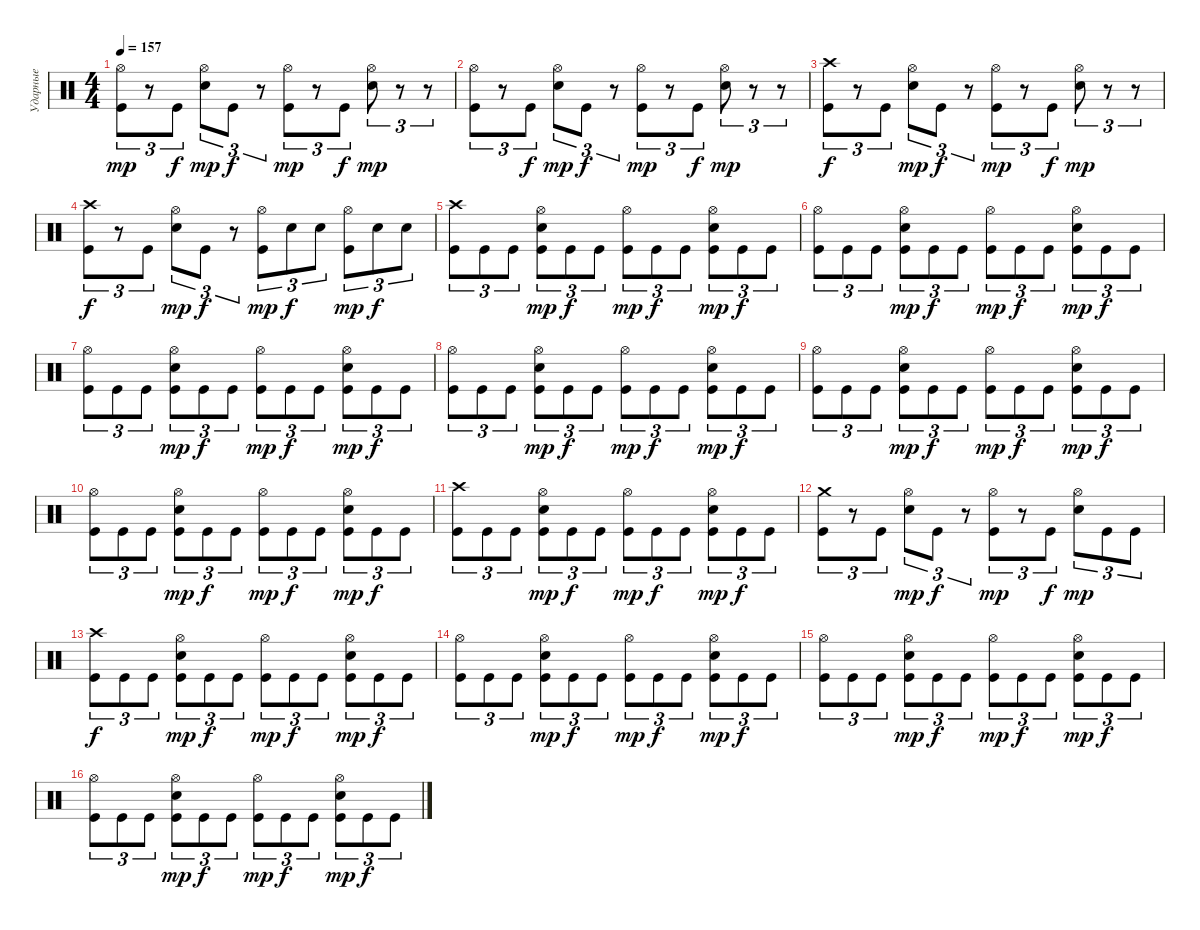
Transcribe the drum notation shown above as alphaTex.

\track ("Ударные" "Ударные") {instrument percussion}
\staff {score}
\articulation defaults
\ts (4 4)
\tempo 157
\clef neutral
\ks c
("Hi-Hat (open)" "Kick (hit)").8{tu (3 2) dy mp} r.8{tu (3 2)} "Kick (hit)".8{tu (3 2) dy f} ("Hi-Hat (open)" "Snare (hit) 2").8{tu (3 2) dy mp} "Kick (hit)".8{tu (3 2) dy f} r.8{tu (3 2)} ("Hi-Hat (open)" "Kick (hit)").8{tu (3 2) dy mp} r.8{tu (3 2)} "Kick (hit)".8{tu (3 2) dy f} ("Hi-Hat (open)" "Snare (hit) 2").8{tu (3 2) dy mp} r.8{tu (3 2)} r.8{tu (3 2)} |
("Hi-Hat (open)" "Kick (hit)").8{tu (3 2)} r.8{tu (3 2)} "Kick (hit)".8{tu (3 2) dy f} ("Hi-Hat (open)" "Snare (hit) 2").8{tu (3 2) dy mp} "Kick (hit)".8{tu (3 2) dy f} r.8{tu (3 2)} ("Hi-Hat (open)" "Kick (hit)").8{tu (3 2) dy mp} r.8{tu (3 2)} "Kick (hit)".8{tu (3 2) dy f} ("Hi-Hat (open)" "Snare (hit) 2").8{tu (3 2) dy mp} r.8{tu (3 2)} r.8{tu (3 2)} |
("Crash high (hit)" "Kick (hit)").8{tu (3 2) dy f} r.8{tu (3 2)} "Kick (hit)".8{tu (3 2)} ("Hi-Hat (open)" "Snare (hit) 2").8{tu (3 2) dy mp} "Kick (hit)".8{tu (3 2) dy f} r.8{tu (3 2)} ("Hi-Hat (open)" "Kick (hit)").8{tu (3 2) dy mp} r.8{tu (3 2)} "Kick (hit)".8{tu (3 2) dy f} ("Hi-Hat (open)" "Snare (hit) 2").8{tu (3 2) dy mp} r.8{tu (3 2)} r.8{tu (3 2)} |
("Crash high (hit)" "Kick (hit)").8{tu (3 2) dy f} r.8{tu (3 2)} "Kick (hit)".8{tu (3 2)} ("Hi-Hat (open)" "Snare (hit) 2").8{tu (3 2) dy mp} "Kick (hit)".8{tu (3 2) dy f} r.8{tu (3 2)} ("Hi-Hat (open)" "Kick (hit)").8{tu (3 2) dy mp} "Snare (hit) 2".8{tu (3 2) dy f} "Snare (hit) 2".8{tu (3 2)} ("Hi-Hat (open)" "Kick (hit)").8{tu (3 2) dy mp} "Snare (hit) 2".8{tu (3 2) dy f} "Snare (hit) 2".8{tu (3 2)} |
("Crash high (hit)" "Kick (hit)").8{tu (3 2)} "Kick (hit)".8{tu (3 2)} "Kick (hit)".8{tu (3 2)} ("Hi-Hat (open)" "Snare (hit) 2" "Kick (hit)").8{tu (3 2) dy mp} "Kick (hit)".8{tu (3 2) dy f} "Kick (hit)".8{tu (3 2)} ("Hi-Hat (open)" "Kick (hit)").8{tu (3 2) dy mp} "Kick (hit)".8{tu (3 2) dy f} "Kick (hit)".8{tu (3 2)} ("Hi-Hat (open)" "Snare (hit) 2" "Kick (hit)").8{tu (3 2) dy mp} "Kick (hit)".8{tu (3 2) dy f} "Kick (hit)".8{tu (3 2)} |
("Hi-Hat (open)" "Kick (hit)").8{tu (3 2)} "Kick (hit)".8{tu (3 2)} "Kick (hit)".8{tu (3 2)} ("Hi-Hat (open)" "Snare (hit) 2" "Kick (hit)").8{tu (3 2) dy mp} "Kick (hit)".8{tu (3 2) dy f} "Kick (hit)".8{tu (3 2)} ("Hi-Hat (open)" "Kick (hit)").8{tu (3 2) dy mp} "Kick (hit)".8{tu (3 2) dy f} "Kick (hit)".8{tu (3 2)} ("Hi-Hat (open)" "Snare (hit) 2" "Kick (hit)").8{tu (3 2) dy mp} "Kick (hit)".8{tu (3 2) dy f} "Kick (hit)".8{tu (3 2)} |
("Hi-Hat (open)" "Kick (hit)").8{tu (3 2)} "Kick (hit)".8{tu (3 2)} "Kick (hit)".8{tu (3 2)} ("Hi-Hat (open)" "Snare (hit) 2" "Kick (hit)").8{tu (3 2) dy mp} "Kick (hit)".8{tu (3 2) dy f} "Kick (hit)".8{tu (3 2)} ("Hi-Hat (open)" "Kick (hit)").8{tu (3 2) dy mp} "Kick (hit)".8{tu (3 2) dy f} "Kick (hit)".8{tu (3 2)} ("Hi-Hat (open)" "Snare (hit) 2" "Kick (hit)").8{tu (3 2) dy mp} "Kick (hit)".8{tu (3 2) dy f} "Kick (hit)".8{tu (3 2)} |
("Hi-Hat (open)" "Kick (hit)").8{tu (3 2)} "Kick (hit)".8{tu (3 2)} "Kick (hit)".8{tu (3 2)} ("Hi-Hat (open)" "Snare (hit) 2" "Kick (hit)").8{tu (3 2) dy mp} "Kick (hit)".8{tu (3 2) dy f} "Kick (hit)".8{tu (3 2)} ("Hi-Hat (open)" "Kick (hit)").8{tu (3 2) dy mp} "Kick (hit)".8{tu (3 2) dy f} "Kick (hit)".8{tu (3 2)} ("Hi-Hat (open)" "Snare (hit) 2" "Kick (hit)").8{tu (3 2) dy mp} "Kick (hit)".8{tu (3 2) dy f} "Kick (hit)".8{tu (3 2)} |
("Hi-Hat (open)" "Kick (hit)").8{tu (3 2)} "Kick (hit)".8{tu (3 2)} "Kick (hit)".8{tu (3 2)} ("Hi-Hat (open)" "Snare (hit) 2" "Kick (hit)").8{tu (3 2) dy mp} "Kick (hit)".8{tu (3 2) dy f} "Kick (hit)".8{tu (3 2)} ("Hi-Hat (open)" "Kick (hit)").8{tu (3 2) dy mp} "Kick (hit)".8{tu (3 2) dy f} "Kick (hit)".8{tu (3 2)} ("Hi-Hat (open)" "Snare (hit) 2" "Kick (hit)").8{tu (3 2) dy mp} "Kick (hit)".8{tu (3 2) dy f} "Kick (hit)".8{tu (3 2)} |
("Hi-Hat (open)" "Kick (hit)").8{tu (3 2)} "Kick (hit)".8{tu (3 2)} "Kick (hit)".8{tu (3 2)} ("Hi-Hat (open)" "Snare (hit) 2" "Kick (hit)").8{tu (3 2) dy mp} "Kick (hit)".8{tu (3 2) dy f} "Kick (hit)".8{tu (3 2)} ("Hi-Hat (open)" "Kick (hit)").8{tu (3 2) dy mp} "Kick (hit)".8{tu (3 2) dy f} "Kick (hit)".8{tu (3 2)} ("Hi-Hat (open)" "Snare (hit) 2" "Kick (hit)").8{tu (3 2) dy mp} "Kick (hit)".8{tu (3 2) dy f} "Kick (hit)".8{tu (3 2)} |
("Crash high (hit)" "Kick (hit)").8{tu (3 2)} "Kick (hit)".8{tu (3 2)} "Kick (hit)".8{tu (3 2)} ("Hi-Hat (open)" "Snare (hit) 2" "Kick (hit)").8{tu (3 2) dy mp} "Kick (hit)".8{tu (3 2) dy f} "Kick (hit)".8{tu (3 2)} ("Hi-Hat (open)" "Kick (hit)").8{tu (3 2) dy mp} "Kick (hit)".8{tu (3 2) dy f} "Kick (hit)".8{tu (3 2)} ("Hi-Hat (open)" "Snare (hit) 2" "Kick (hit)").8{tu (3 2) dy mp} "Kick (hit)".8{tu (3 2) dy f} "Kick (hit)".8{tu (3 2)} |
("Crash medium (hit)" "Kick (hit)").8{tu (3 2)} r.8{tu (3 2)} "Kick (hit)".8{tu (3 2)} ("Hi-Hat (open)" "Snare (hit) 2").8{tu (3 2) dy mp} "Kick (hit)".8{tu (3 2) dy f} r.8{tu (3 2)} ("Hi-Hat (open)" "Kick (hit)").8{tu (3 2) dy mp} r.8{tu (3 2)} "Kick (hit)".8{tu (3 2) dy f} ("Hi-Hat (open)" "Snare (hit) 2").8{tu (3 2) dy mp} "Kick (hit)".8{tu (3 2)} "Kick (hit)".8{tu (3 2)} |
("Crash high (hit)" "Kick (hit)").8{tu (3 2) dy f} "Kick (hit)".8{tu (3 2)} "Kick (hit)".8{tu (3 2)} ("Hi-Hat (open)" "Snare (hit) 2" "Kick (hit)").8{tu (3 2) dy mp} "Kick (hit)".8{tu (3 2) dy f} "Kick (hit)".8{tu (3 2)} ("Hi-Hat (open)" "Kick (hit)").8{tu (3 2) dy mp} "Kick (hit)".8{tu (3 2) dy f} "Kick (hit)".8{tu (3 2)} ("Hi-Hat (open)" "Snare (hit) 2" "Kick (hit)").8{tu (3 2) dy mp} "Kick (hit)".8{tu (3 2) dy f} "Kick (hit)".8{tu (3 2)} |
("Hi-Hat (open)" "Kick (hit)").8{tu (3 2)} "Kick (hit)".8{tu (3 2)} "Kick (hit)".8{tu (3 2)} ("Hi-Hat (open)" "Snare (hit) 2" "Kick (hit)").8{tu (3 2) dy mp} "Kick (hit)".8{tu (3 2) dy f} "Kick (hit)".8{tu (3 2)} ("Hi-Hat (open)" "Kick (hit)").8{tu (3 2) dy mp} "Kick (hit)".8{tu (3 2) dy f} "Kick (hit)".8{tu (3 2)} ("Hi-Hat (open)" "Snare (hit) 2" "Kick (hit)").8{tu (3 2) dy mp} "Kick (hit)".8{tu (3 2) dy f} "Kick (hit)".8{tu (3 2)} |
("Hi-Hat (open)" "Kick (hit)").8{tu (3 2)} "Kick (hit)".8{tu (3 2)} "Kick (hit)".8{tu (3 2)} ("Hi-Hat (open)" "Snare (hit) 2" "Kick (hit)").8{tu (3 2) dy mp} "Kick (hit)".8{tu (3 2) dy f} "Kick (hit)".8{tu (3 2)} ("Hi-Hat (open)" "Kick (hit)").8{tu (3 2) dy mp} "Kick (hit)".8{tu (3 2) dy f} "Kick (hit)".8{tu (3 2)} ("Hi-Hat (open)" "Snare (hit) 2" "Kick (hit)").8{tu (3 2) dy mp} "Kick (hit)".8{tu (3 2) dy f} "Kick (hit)".8{tu (3 2)} |
("Hi-Hat (open)" "Kick (hit)").8{tu (3 2)} "Kick (hit)".8{tu (3 2)} "Kick (hit)".8{tu (3 2)} ("Hi-Hat (open)" "Snare (hit) 2" "Kick (hit)").8{tu (3 2) dy mp} "Kick (hit)".8{tu (3 2) dy f} "Kick (hit)".8{tu (3 2)} ("Hi-Hat (open)" "Kick (hit)").8{tu (3 2) dy mp} "Kick (hit)".8{tu (3 2) dy f} "Kick (hit)".8{tu (3 2)} ("Hi-Hat (open)" "Snare (hit) 2" "Kick (hit)").8{tu (3 2) dy mp} "Kick (hit)".8{tu (3 2) dy f} "Kick (hit)".8{tu (3 2)}
